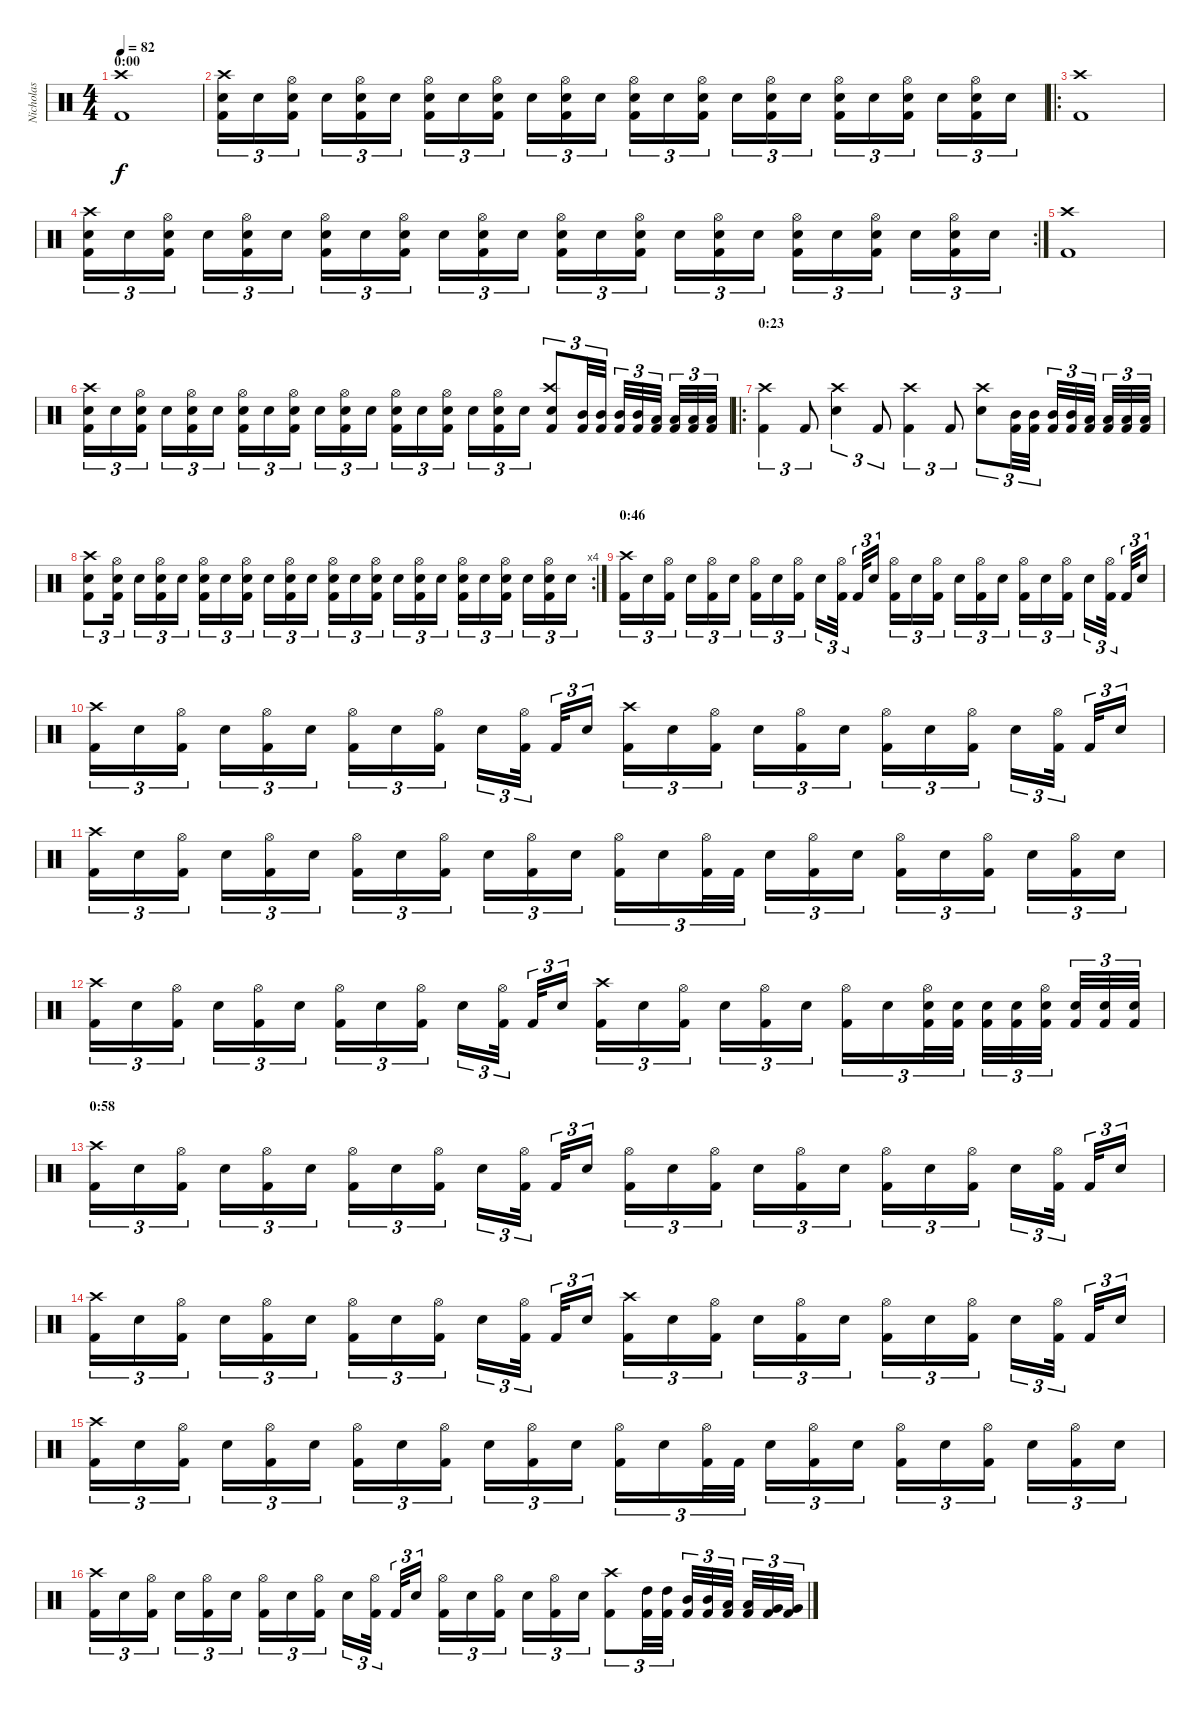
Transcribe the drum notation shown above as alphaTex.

\track ("Nicholas" "Nicholas") {instrument percussion}
\staff {score}
\articulation defaults
\ts (4 4)
\section ("" "0:00")
\tempo 82
\clef neutral
\ks c
("Kick (hit) 2" "Crash high (hit)").1{dy f} |
("Kick (hit) 2" "Snare (hit) 2" "Crash high (hit)").16{tu (3 2)} "Snare (hit) 2".16{tu (3 2)} ("Kick (hit) 2" "Snare (hit) 2" "Hi-Hat (open)").16{tu (3 2)} "Snare (hit) 2".16{tu (3 2)} ("Kick (hit) 2" "Snare (hit) 2" "Hi-Hat (open)").16{tu (3 2)} "Snare (hit) 2".16{tu (3 2)} ("Kick (hit) 2" "Snare (hit) 2" "Hi-Hat (open)").16{tu (3 2)} "Snare (hit) 2".16{tu (3 2)} ("Kick (hit) 2" "Snare (hit) 2" "Hi-Hat (open)").16{tu (3 2)} "Snare (hit) 2".16{tu (3 2)} ("Kick (hit) 2" "Snare (hit) 2" "Hi-Hat (open)").16{tu (3 2)} "Snare (hit) 2".16{tu (3 2)} ("Kick (hit) 2" "Snare (hit) 2" "Hi-Hat (open)").16{tu (3 2)} "Snare (hit) 2".16{tu (3 2)} ("Kick (hit) 2" "Snare (hit) 2" "Hi-Hat (open)").16{tu (3 2)} "Snare (hit) 2".16{tu (3 2)} ("Kick (hit) 2" "Snare (hit) 2" "Hi-Hat (open)").16{tu (3 2)} "Snare (hit) 2".16{tu (3 2)} ("Kick (hit) 2" "Snare (hit) 2" "Hi-Hat (open)").16{tu (3 2)} "Snare (hit) 2".16{tu (3 2)} ("Kick (hit) 2" "Snare (hit) 2" "Hi-Hat (open)").16{tu (3 2)} "Snare (hit) 2".16{tu (3 2)} ("Kick (hit) 2" "Snare (hit) 2" "Hi-Hat (open)").16{tu (3 2)} "Snare (hit) 2".16{tu (3 2)} |
\ro
("Kick (hit) 2" "Crash high (hit)").1 |
\rc 2
("Kick (hit) 2" "Snare (hit) 2" "Crash high (hit)").16{tu (3 2)} "Snare (hit) 2".16{tu (3 2)} ("Kick (hit) 2" "Snare (hit) 2" "Hi-Hat (open)").16{tu (3 2)} "Snare (hit) 2".16{tu (3 2)} ("Kick (hit) 2" "Snare (hit) 2" "Hi-Hat (open)").16{tu (3 2)} "Snare (hit) 2".16{tu (3 2)} ("Kick (hit) 2" "Snare (hit) 2" "Hi-Hat (open)").16{tu (3 2)} "Snare (hit) 2".16{tu (3 2)} ("Kick (hit) 2" "Snare (hit) 2" "Hi-Hat (open)").16{tu (3 2)} "Snare (hit) 2".16{tu (3 2)} ("Kick (hit) 2" "Snare (hit) 2" "Hi-Hat (open)").16{tu (3 2)} "Snare (hit) 2".16{tu (3 2)} ("Kick (hit) 2" "Snare (hit) 2" "Hi-Hat (open)").16{tu (3 2)} "Snare (hit) 2".16{tu (3 2)} ("Kick (hit) 2" "Snare (hit) 2" "Hi-Hat (open)").16{tu (3 2)} "Snare (hit) 2".16{tu (3 2)} ("Kick (hit) 2" "Snare (hit) 2" "Hi-Hat (open)").16{tu (3 2)} "Snare (hit) 2".16{tu (3 2)} ("Kick (hit) 2" "Snare (hit) 2" "Hi-Hat (open)").16{tu (3 2)} "Snare (hit) 2".16{tu (3 2)} ("Kick (hit) 2" "Snare (hit) 2" "Hi-Hat (open)").16{tu (3 2)} "Snare (hit) 2".16{tu (3 2)} ("Kick (hit) 2" "Snare (hit) 2" "Hi-Hat (open)").16{tu (3 2)} "Snare (hit) 2".16{tu (3 2)} |
("Kick (hit) 2" "Crash high (hit)").1 |
("Kick (hit) 2" "Snare (hit) 2" "Crash high (hit)").16{tu (3 2)} "Snare (hit) 2".16{tu (3 2)} ("Kick (hit) 2" "Snare (hit) 2" "Hi-Hat (open)").16{tu (3 2)} "Snare (hit) 2".16{tu (3 2)} ("Kick (hit) 2" "Snare (hit) 2" "Hi-Hat (open)").16{tu (3 2)} "Snare (hit) 2".16{tu (3 2)} ("Kick (hit) 2" "Snare (hit) 2" "Hi-Hat (open)").16{tu (3 2)} "Snare (hit) 2".16{tu (3 2)} ("Kick (hit) 2" "Snare (hit) 2" "Hi-Hat (open)").16{tu (3 2)} "Snare (hit) 2".16{tu (3 2)} ("Kick (hit) 2" "Snare (hit) 2" "Hi-Hat (open)").16{tu (3 2)} "Snare (hit) 2".16{tu (3 2)} ("Kick (hit) 2" "Snare (hit) 2" "Hi-Hat (open)").16{tu (3 2)} "Snare (hit) 2".16{tu (3 2)} ("Kick (hit) 2" "Snare (hit) 2" "Hi-Hat (open)").16{tu (3 2)} "Snare (hit) 2".16{tu (3 2)} ("Kick (hit) 2" "Snare (hit) 2" "Hi-Hat (open)").16{tu (3 2)} "Snare (hit) 2".16{tu (3 2)} ("Kick (hit) 2" "Snare (hit) 2" "Crash high (hit)").8{tu (3 2)} ("Kick (hit) 2" "Mid Tom (hit)").32{tu (3 2)} ("Kick (hit) 2" "Mid Tom (hit)").32{tu (3 2)} ("Kick (hit) 2" "Mid Tom (hit)").32{tu (3 2)} ("Kick (hit) 2" "Mid Tom (hit)").32{tu (3 2)} ("Kick (hit) 2" "Low Tom (hit)").32{tu (3 2)} ("Kick (hit) 2" "Low Tom (hit)").32{tu (3 2)} ("Kick (hit) 2" "Low Tom (hit)").32{tu (3 2)} ("Kick (hit) 2" "Low Tom (hit)").32{tu (3 2)} |
\ro
\section ("" "0:23")
("Kick (hit) 2" "Crash high (hit)").4{tu (3 2)} "Kick (hit) 2".8{tu (3 2)} ("Snare (hit) 2" "Crash high (hit)").4{tu (3 2)} "Kick (hit) 2".8{tu (3 2)} ("Kick (hit) 2" "Crash high (hit)").4{tu (3 2)} "Kick (hit) 2".8{tu (3 2)} ("Snare (hit) 2" "Crash high (hit)").8{tu (3 2)} ("Kick (hit) 2" "Mid Tom (hit)").32{tu (3 2)} ("Kick (hit) 2" "Mid Tom (hit)").32{tu (3 2)} ("Kick (hit) 2" "Mid Tom (hit)").32{tu (3 2)} ("Kick (hit) 2" "Mid Tom (hit)").32{tu (3 2)} ("Kick (hit) 2" "Low Tom (hit)").32{tu (3 2)} ("Kick (hit) 2" "Low Tom (hit)").32{tu (3 2)} ("Kick (hit) 2" "Low Tom (hit)").32{tu (3 2)} ("Kick (hit) 2" "Low Tom (hit)").32{tu (3 2)} |
\rc 4
("Kick (hit) 2" "Snare (hit) 2" "Crash high (hit)").8{tu (3 2)} ("Kick (hit) 2" "Snare (hit) 2" "Hi-Hat (open)").16{tu (3 2)} "Snare (hit) 2".16{tu (3 2)} ("Kick (hit) 2" "Snare (hit) 2" "Hi-Hat (open)").16{tu (3 2)} "Snare (hit) 2".16{tu (3 2)} ("Kick (hit) 2" "Snare (hit) 2" "Hi-Hat (open)").16{tu (3 2)} "Snare (hit) 2".16{tu (3 2)} ("Kick (hit) 2" "Snare (hit) 2" "Hi-Hat (open)").16{tu (3 2)} "Snare (hit) 2".16{tu (3 2)} ("Kick (hit) 2" "Snare (hit) 2" "Hi-Hat (open)").16{tu (3 2)} "Snare (hit) 2".16{tu (3 2)} ("Kick (hit) 2" "Snare (hit) 2" "Hi-Hat (open)").16{tu (3 2)} "Snare (hit) 2".16{tu (3 2)} ("Kick (hit) 2" "Snare (hit) 2" "Hi-Hat (open)").16{tu (3 2)} "Snare (hit) 2".16{tu (3 2)} ("Kick (hit) 2" "Snare (hit) 2" "Hi-Hat (open)").16{tu (3 2)} "Snare (hit) 2".16{tu (3 2)} ("Kick (hit) 2" "Snare (hit) 2" "Hi-Hat (open)").16{tu (3 2)} "Snare (hit) 2".16{tu (3 2)} ("Kick (hit) 2" "Snare (hit) 2" "Hi-Hat (open)").16{tu (3 2)} "Snare (hit) 2".16{tu (3 2)} ("Kick (hit) 2" "Snare (hit) 2" "Hi-Hat (open)").16{tu (3 2)} "Snare (hit) 2".16{tu (3 2)} |
\section ("" "0:46")
("Kick (hit) 2" "Crash high (hit)").16{tu (3 2)} "Snare (hit) 2".16{tu (3 2)} ("Kick (hit) 2" "Hi-Hat (open)").16{tu (3 2)} "Snare (hit) 2".16{tu (3 2)} ("Kick (hit) 2" "Hi-Hat (open)").16{tu (3 2)} "Snare (hit) 2".16{tu (3 2)} ("Kick (hit) 2" "Hi-Hat (open)").16{tu (3 2)} "Snare (hit) 2".16{tu (3 2)} ("Kick (hit) 2" "Hi-Hat (open)").16{tu (3 2)} "Snare (hit) 2".16{tu (3 2)} ("Kick (hit) 2" "Hi-Hat (open)").32{tu (3 2)} "Kick (hit) 2".32{tu (3 2)} "Snare (hit) 2".16{tu (3 2)} ("Kick (hit) 2" "Hi-Hat (open)").16{tu (3 2)} "Snare (hit) 2".16{tu (3 2)} ("Kick (hit) 2" "Hi-Hat (open)").16{tu (3 2)} "Snare (hit) 2".16{tu (3 2)} ("Kick (hit) 2" "Hi-Hat (open)").16{tu (3 2)} "Snare (hit) 2".16{tu (3 2)} ("Kick (hit) 2" "Hi-Hat (open)").16{tu (3 2)} "Snare (hit) 2".16{tu (3 2)} ("Kick (hit) 2" "Hi-Hat (open)").16{tu (3 2)} "Snare (hit) 2".16{tu (3 2)} ("Kick (hit) 2" "Hi-Hat (open)").32{tu (3 2)} "Kick (hit) 2".32{tu (3 2)} "Snare (hit) 2".16{tu (3 2)} |
("Kick (hit) 2" "Crash high (hit)").16{tu (3 2)} "Snare (hit) 2".16{tu (3 2)} ("Kick (hit) 2" "Hi-Hat (open)").16{tu (3 2)} "Snare (hit) 2".16{tu (3 2)} ("Kick (hit) 2" "Hi-Hat (open)").16{tu (3 2)} "Snare (hit) 2".16{tu (3 2)} ("Kick (hit) 2" "Hi-Hat (open)").16{tu (3 2)} "Snare (hit) 2".16{tu (3 2)} ("Kick (hit) 2" "Hi-Hat (open)").16{tu (3 2)} "Snare (hit) 2".16{tu (3 2)} ("Kick (hit) 2" "Hi-Hat (open)").32{tu (3 2)} "Kick (hit) 2".32{tu (3 2)} "Snare (hit) 2".16{tu (3 2)} ("Kick (hit) 2" "Crash high (hit)").16{tu (3 2)} "Snare (hit) 2".16{tu (3 2)} ("Kick (hit) 2" "Hi-Hat (open)").16{tu (3 2)} "Snare (hit) 2".16{tu (3 2)} ("Kick (hit) 2" "Hi-Hat (open)").16{tu (3 2)} "Snare (hit) 2".16{tu (3 2)} ("Kick (hit) 2" "Hi-Hat (open)").16{tu (3 2)} "Snare (hit) 2".16{tu (3 2)} ("Kick (hit) 2" "Hi-Hat (open)").16{tu (3 2)} "Snare (hit) 2".16{tu (3 2)} ("Kick (hit) 2" "Hi-Hat (open)").32{tu (3 2)} "Kick (hit) 2".32{tu (3 2)} "Snare (hit) 2".16{tu (3 2)} |
("Kick (hit) 2" "Crash high (hit)").16{tu (3 2)} "Snare (hit) 2".16{tu (3 2)} ("Kick (hit) 2" "Hi-Hat (open)").16{tu (3 2)} "Snare (hit) 2".16{tu (3 2)} ("Kick (hit) 2" "Hi-Hat (open)").16{tu (3 2)} "Snare (hit) 2".16{tu (3 2)} ("Kick (hit) 2" "Hi-Hat (open)").16{tu (3 2)} "Snare (hit) 2".16{tu (3 2)} ("Kick (hit) 2" "Hi-Hat (open)").16{tu (3 2)} "Snare (hit) 2".16{tu (3 2)} ("Kick (hit) 2" "Hi-Hat (open)").16{tu (3 2)} "Snare (hit) 2".16{tu (3 2)} ("Kick (hit) 2" "Hi-Hat (open)").16{tu (3 2)} "Snare (hit) 2".16{tu (3 2)} ("Kick (hit) 2" "Hi-Hat (open)").32{tu (3 2)} "Kick (hit) 2".32{tu (3 2)} "Snare (hit) 2".16{tu (3 2)} ("Kick (hit) 2" "Hi-Hat (open)").16{tu (3 2)} "Snare (hit) 2".16{tu (3 2)} ("Kick (hit) 2" "Hi-Hat (open)").16{tu (3 2)} "Snare (hit) 2".16{tu (3 2)} ("Kick (hit) 2" "Hi-Hat (open)").16{tu (3 2)} "Snare (hit) 2".16{tu (3 2)} ("Kick (hit) 2" "Hi-Hat (open)").16{tu (3 2)} "Snare (hit) 2".16{tu (3 2)} |
("Kick (hit) 2" "Crash high (hit)").16{tu (3 2)} "Snare (hit) 2".16{tu (3 2)} ("Kick (hit) 2" "Hi-Hat (open)").16{tu (3 2)} "Snare (hit) 2".16{tu (3 2)} ("Kick (hit) 2" "Hi-Hat (open)").16{tu (3 2)} "Snare (hit) 2".16{tu (3 2)} ("Kick (hit) 2" "Hi-Hat (open)").16{tu (3 2)} "Snare (hit) 2".16{tu (3 2)} ("Kick (hit) 2" "Hi-Hat (open)").16{tu (3 2)} "Snare (hit) 2".16{tu (3 2)} ("Kick (hit) 2" "Hi-Hat (open)").32{tu (3 2)} "Kick (hit) 2".32{tu (3 2)} "Snare (hit) 2".16{tu (3 2)} ("Kick (hit) 2" "Crash high (hit)").16{tu (3 2)} "Snare (hit) 2".16{tu (3 2)} ("Kick (hit) 2" "Hi-Hat (open)").16{tu (3 2)} "Snare (hit) 2".16{tu (3 2)} ("Kick (hit) 2" "Hi-Hat (open)").16{tu (3 2)} "Snare (hit) 2".16{tu (3 2)} ("Kick (hit) 2" "Hi-Hat (open)").16{tu (3 2)} "Snare (hit) 2".16{tu (3 2)} ("Kick (hit) 2" "Snare (hit) 2" "Hi-Hat (open)").32{tu (3 2)} ("Kick (hit) 2" "Snare (hit) 2").32{tu (3 2)} ("Kick (hit) 2" "Snare (hit) 2").32{tu (3 2)} ("Kick (hit) 2" "Snare (hit) 2").32{tu (3 2)} ("Kick (hit) 2" "Snare (hit) 2" "Hi-Hat (open)").32{tu (3 2)} ("Kick (hit) 2" "Snare (hit) 2").32{tu (3 2)} ("Kick (hit) 2" "Snare (hit) 2").32{tu (3 2)} ("Kick (hit) 2" "Snare (hit) 2").32{tu (3 2)} |
\section ("" "0:58")
("Kick (hit) 2" "Crash high (hit)").16{tu (3 2)} "Snare (hit) 2".16{tu (3 2)} ("Kick (hit) 2" "Hi-Hat (open)").16{tu (3 2)} "Snare (hit) 2".16{tu (3 2)} ("Kick (hit) 2" "Hi-Hat (open)").16{tu (3 2)} "Snare (hit) 2".16{tu (3 2)} ("Kick (hit) 2" "Hi-Hat (open)").16{tu (3 2)} "Snare (hit) 2".16{tu (3 2)} ("Kick (hit) 2" "Hi-Hat (open)").16{tu (3 2)} "Snare (hit) 2".16{tu (3 2)} ("Kick (hit) 2" "Hi-Hat (open)").32{tu (3 2)} "Kick (hit) 2".32{tu (3 2)} "Snare (hit) 2".16{tu (3 2)} ("Kick (hit) 2" "Hi-Hat (open)").16{tu (3 2)} "Snare (hit) 2".16{tu (3 2)} ("Kick (hit) 2" "Hi-Hat (open)").16{tu (3 2)} "Snare (hit) 2".16{tu (3 2)} ("Kick (hit) 2" "Hi-Hat (open)").16{tu (3 2)} "Snare (hit) 2".16{tu (3 2)} ("Kick (hit) 2" "Hi-Hat (open)").16{tu (3 2)} "Snare (hit) 2".16{tu (3 2)} ("Kick (hit) 2" "Hi-Hat (open)").16{tu (3 2)} "Snare (hit) 2".16{tu (3 2)} ("Kick (hit) 2" "Hi-Hat (open)").32{tu (3 2)} "Kick (hit) 2".32{tu (3 2)} "Snare (hit) 2".16{tu (3 2)} |
("Kick (hit) 2" "Crash high (hit)").16{tu (3 2)} "Snare (hit) 2".16{tu (3 2)} ("Kick (hit) 2" "Hi-Hat (open)").16{tu (3 2)} "Snare (hit) 2".16{tu (3 2)} ("Kick (hit) 2" "Hi-Hat (open)").16{tu (3 2)} "Snare (hit) 2".16{tu (3 2)} ("Kick (hit) 2" "Hi-Hat (open)").16{tu (3 2)} "Snare (hit) 2".16{tu (3 2)} ("Kick (hit) 2" "Hi-Hat (open)").16{tu (3 2)} "Snare (hit) 2".16{tu (3 2)} ("Kick (hit) 2" "Hi-Hat (open)").32{tu (3 2)} "Kick (hit) 2".32{tu (3 2)} "Snare (hit) 2".16{tu (3 2)} ("Kick (hit) 2" "Crash high (hit)").16{tu (3 2)} "Snare (hit) 2".16{tu (3 2)} ("Kick (hit) 2" "Hi-Hat (open)").16{tu (3 2)} "Snare (hit) 2".16{tu (3 2)} ("Kick (hit) 2" "Hi-Hat (open)").16{tu (3 2)} "Snare (hit) 2".16{tu (3 2)} ("Kick (hit) 2" "Hi-Hat (open)").16{tu (3 2)} "Snare (hit) 2".16{tu (3 2)} ("Kick (hit) 2" "Hi-Hat (open)").16{tu (3 2)} "Snare (hit) 2".16{tu (3 2)} ("Kick (hit) 2" "Hi-Hat (open)").32{tu (3 2)} "Kick (hit) 2".32{tu (3 2)} "Snare (hit) 2".16{tu (3 2)} |
("Kick (hit) 2" "Crash high (hit)").16{tu (3 2)} "Snare (hit) 2".16{tu (3 2)} ("Kick (hit) 2" "Hi-Hat (open)").16{tu (3 2)} "Snare (hit) 2".16{tu (3 2)} ("Kick (hit) 2" "Hi-Hat (open)").16{tu (3 2)} "Snare (hit) 2".16{tu (3 2)} ("Kick (hit) 2" "Hi-Hat (open)").16{tu (3 2)} "Snare (hit) 2".16{tu (3 2)} ("Kick (hit) 2" "Hi-Hat (open)").16{tu (3 2)} "Snare (hit) 2".16{tu (3 2)} ("Kick (hit) 2" "Hi-Hat (open)").16{tu (3 2)} "Snare (hit) 2".16{tu (3 2)} ("Kick (hit) 2" "Hi-Hat (open)").16{tu (3 2)} "Snare (hit) 2".16{tu (3 2)} ("Kick (hit) 2" "Hi-Hat (open)").32{tu (3 2)} "Kick (hit) 2".32{tu (3 2)} "Snare (hit) 2".16{tu (3 2)} ("Kick (hit) 2" "Hi-Hat (open)").16{tu (3 2)} "Snare (hit) 2".16{tu (3 2)} ("Kick (hit) 2" "Hi-Hat (open)").16{tu (3 2)} "Snare (hit) 2".16{tu (3 2)} ("Kick (hit) 2" "Hi-Hat (open)").16{tu (3 2)} "Snare (hit) 2".16{tu (3 2)} ("Kick (hit) 2" "Hi-Hat (open)").16{tu (3 2)} "Snare (hit) 2".16{tu (3 2)} |
("Kick (hit) 2" "Crash high (hit)").16{tu (3 2)} "Snare (hit) 2".16{tu (3 2)} ("Kick (hit) 2" "Hi-Hat (open)").16{tu (3 2)} "Snare (hit) 2".16{tu (3 2)} ("Kick (hit) 2" "Hi-Hat (open)").16{tu (3 2)} "Snare (hit) 2".16{tu (3 2)} ("Kick (hit) 2" "Hi-Hat (open)").16{tu (3 2)} "Snare (hit) 2".16{tu (3 2)} ("Kick (hit) 2" "Hi-Hat (open)").16{tu (3 2)} "Snare (hit) 2".16{tu (3 2)} ("Kick (hit) 2" "Hi-Hat (open)").32{tu (3 2)} "Kick (hit) 2".32{tu (3 2)} "Snare (hit) 2".16{tu (3 2)} ("Kick (hit) 2" "Hi-Hat (open)").16{tu (3 2)} "Snare (hit) 2".16{tu (3 2)} ("Kick (hit) 2" "Hi-Hat (open)").16{tu (3 2)} "Snare (hit) 2".16{tu (3 2)} ("Kick (hit) 2" "Hi-Hat (open)").16{tu (3 2)} "Snare (hit) 2".16{tu (3 2)} ("Kick (hit) 2" "Crash high (hit)").8{tu (3 2)} ("Kick (hit) 2" "High Tom (hit)").32{tu (3 2)} ("Kick (hit) 2" "High Tom (hit)").32{tu (3 2)} ("Kick (hit) 2" "Mid Tom (hit)").32{tu (3 2)} ("Kick (hit) 2" "Mid Tom (hit)").32{tu (3 2)} ("Kick (hit) 2" "Low Tom (hit)").32{tu (3 2)} ("Kick (hit) 2" "Low Tom (hit)").32{tu (3 2)} ("Kick (hit) 2" "Very Low Tom (hit)").32{tu (3 2)} ("Kick (hit) 2" "Very Low Tom (hit)").32{tu (3 2)}
